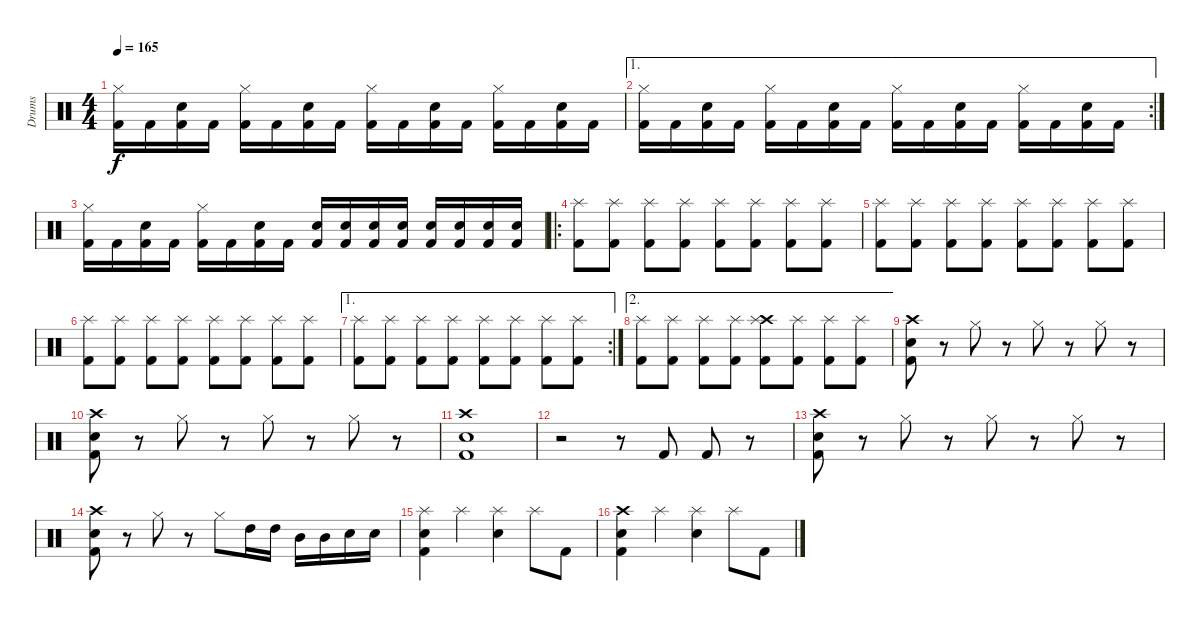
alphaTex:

\track ("Drums" "Drums") {instrument percussion}
\staff {score}
\articulation defaults
\ts (4 4)
\tempo 165
\clef neutral
\ks c
("Hi-Hat (closed)" "Kick (hit) 2").16{dy f} "Kick (hit) 2".16 ("Snare (hit) 2" "Kick (hit) 2").16 "Kick (hit) 2".16 ("Hi-Hat (closed)" "Kick (hit) 2").16 "Kick (hit) 2".16 ("Snare (hit) 2" "Kick (hit) 2").16 "Kick (hit) 2".16 ("Hi-Hat (closed)" "Kick (hit) 2").16 "Kick (hit) 2".16 ("Snare (hit) 2" "Kick (hit) 2").16 "Kick (hit) 2".16 ("Hi-Hat (closed)" "Kick (hit) 2").16 "Kick (hit) 2".16 ("Snare (hit) 2" "Kick (hit) 2").16 "Kick (hit) 2".16 |
\ae 1
\rc 2
("Hi-Hat (closed)" "Kick (hit) 2").16 "Kick (hit) 2".16 ("Snare (hit) 2" "Kick (hit) 2").16 "Kick (hit) 2".16 ("Hi-Hat (closed)" "Kick (hit) 2").16 "Kick (hit) 2".16 ("Snare (hit) 2" "Kick (hit) 2").16 "Kick (hit) 2".16 ("Hi-Hat (closed)" "Kick (hit) 2").16 "Kick (hit) 2".16 ("Snare (hit) 2" "Kick (hit) 2").16 "Kick (hit) 2".16 ("Hi-Hat (closed)" "Kick (hit) 2").16 "Kick (hit) 2".16 ("Snare (hit) 2" "Kick (hit) 2").16 "Kick (hit) 2".16 |
("Hi-Hat (closed)" "Kick (hit) 2").16 "Kick (hit) 2".16 ("Snare (hit) 2" "Kick (hit) 2").16 "Kick (hit) 2".16 ("Hi-Hat (closed)" "Kick (hit) 2").16 "Kick (hit) 2".16 ("Snare (hit) 2" "Kick (hit) 2").16 "Kick (hit) 2".16 ("Snare (hit) 2" "Kick (hit) 2").16 ("Snare (hit) 2" "Kick (hit) 2").16 ("Snare (hit) 2" "Kick (hit) 2").16 ("Snare (hit) 2" "Kick (hit) 2").16 ("Snare (hit) 2" "Kick (hit) 2").16 ("Snare (hit) 2" "Kick (hit) 2").16 ("Snare (hit) 2" "Kick (hit) 2").16 ("Snare (hit) 2" "Kick (hit) 2").16 |
\ro
("Splash (hit)" "Kick (hit) 2").8 ("Splash (hit)" "Kick (hit) 2").8 ("Splash (hit)" "Kick (hit) 2").8 ("Splash (hit)" "Kick (hit) 2").8 ("Splash (hit)" "Kick (hit) 2").8 ("Splash (hit)" "Kick (hit) 2").8 ("Splash (hit)" "Kick (hit) 2").8 ("Splash (hit)" "Kick (hit) 2").8 |
("Splash (hit)" "Kick (hit) 2").8 ("Splash (hit)" "Kick (hit) 2").8 ("Splash (hit)" "Kick (hit) 2").8 ("Splash (hit)" "Kick (hit) 2").8 ("Splash (hit)" "Kick (hit) 2").8 ("Splash (hit)" "Kick (hit) 2").8 ("Splash (hit)" "Kick (hit) 2").8 ("Splash (hit)" "Kick (hit) 2").8 |
("Splash (hit)" "Kick (hit) 2").8 ("Splash (hit)" "Kick (hit) 2").8 ("Splash (hit)" "Kick (hit) 2").8 ("Splash (hit)" "Kick (hit) 2").8 ("Splash (hit)" "Kick (hit) 2").8 ("Splash (hit)" "Kick (hit) 2").8 ("Splash (hit)" "Kick (hit) 2").8 ("Splash (hit)" "Kick (hit) 2").8 |
\ae 1
\rc 2
("Splash (hit)" "Kick (hit) 2").8 ("Splash (hit)" "Kick (hit) 2").8 ("Splash (hit)" "Kick (hit) 2").8 ("Splash (hit)" "Kick (hit) 2").8 ("Splash (hit)" "Kick (hit) 2").8 ("Splash (hit)" "Kick (hit) 2").8 ("Splash (hit)" "Kick (hit) 2").8 ("Splash (hit)" "Kick (hit) 2").8 |
\ae 2
("Splash (hit)" "Kick (hit) 2").8 ("Splash (hit)" "Kick (hit) 2").8 ("Splash (hit)" "Kick (hit) 2").8 ("Splash (hit)" "Kick (hit) 2").8 ("Crash high (hit)" "Splash (hit)" "Kick (hit) 2").8 ("Splash (hit)" "Kick (hit) 2").8 ("Splash (hit)" "Kick (hit) 2").8 ("Splash (hit)" "Kick (hit) 2").8 |
("Crash high (hit)" "Snare (hit) 2" "Kick (hit) 2").8 r.8 "Hi-Hat (closed)".8 r.8 "Hi-Hat (closed)".8 r.8 "Hi-Hat (closed)".8 r.8 |
("Crash high (hit)" "Snare (hit) 2" "Kick (hit) 2").8 r.8 "Hi-Hat (closed)".8 r.8 "Hi-Hat (closed)".8 r.8 "Hi-Hat (closed)".8 r.8 |
("Crash high (hit)" "Snare (hit) 2" "Kick (hit) 2").1 |
r.2 r.8 "Kick (hit) 2".8 "Kick (hit) 2".8 r.8 |
("Crash high (hit)" "Snare (hit) 2" "Kick (hit) 2").8 r.8 "Hi-Hat (closed)".8 r.8 "Hi-Hat (closed)".8 r.8 "Hi-Hat (closed)".8 r.8 |
("Crash high (hit)" "Snare (hit) 2" "Kick (hit) 2").8 r.8 "Hi-Hat (closed)".8 r.8 "Hi-Hat (closed)".8 "High Tom (hit)".16 "High Tom (hit)".16 "Mid Tom (hit)".16 "Mid Tom (hit)".16 "Snare (hit) 2".16 "Snare (hit) 2".16 |
("Splash (hit)" "Snare (hit) 2" "Kick (hit) 2").4 "Splash (hit)".4 ("Splash (hit)" "Snare (hit) 2").4 "Splash (hit)".8 "Kick (hit) 2".8 |
("Crash high (hit)" "Snare (hit) 2" "Kick (hit) 2").4 "Splash (hit)".4 ("Splash (hit)" "Snare (hit) 2").4 "Splash (hit)".8 "Kick (hit) 2".8
